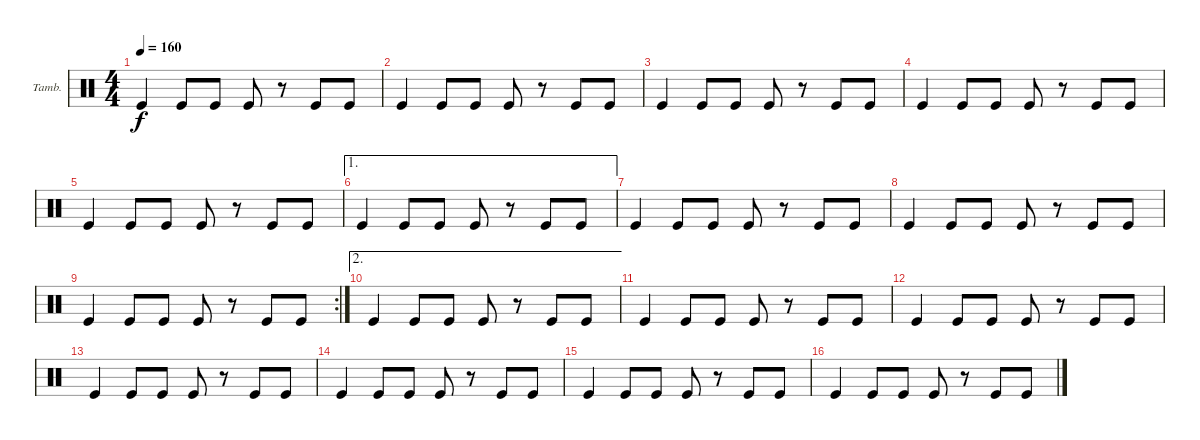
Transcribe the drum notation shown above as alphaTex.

\bracketExtendMode groupsimilarinstruments
\firstSystemTrackNameOrientation horizontal
\otherSystemsTrackNameOrientation horizontal
\track ("Tambourine" "Tamb.") {instrument percussion}
\staff {score}
\articulation defaults
\ts (4 4)
\tempo 160
\clef neutral
\ks c "Kick (hit)".4{dy f} "Kick (hit)".8 "Kick (hit)".8 "Kick (hit)".8
r.8 "Kick (hit)".8 "Kick (hit)".8 |
"Kick (hit)".4 "Kick (hit)".8 "Kick (hit)".8 "Kick (hit)".8 r.8 "Kick (hit)".8 "Kick (hit)".8 |
"Kick (hit)".4 "Kick (hit)".8 "Kick (hit)".8 "Kick (hit)".8 r.8 "Kick (hit)".8 "Kick (hit)".8 |
"Kick (hit)".4 "Kick (hit)".8 "Kick (hit)".8 "Kick (hit)".8 r.8 "Kick (hit)".8 "Kick (hit)".8 |
"Kick (hit)".4 "Kick (hit)".8 "Kick (hit)".8 "Kick (hit)".8 r.8 "Kick (hit)".8 "Kick (hit)".8 |
\ae 1 "Kick (hit)".4 "Kick (hit)".8 "Kick (hit)".8 "Kick (hit)".8
r.8 "Kick (hit)".8 "Kick (hit)".8 |
"Kick (hit)".4 "Kick (hit)".8 "Kick (hit)".8 "Kick (hit)".8 r.8 "Kick (hit)".8 "Kick (hit)".8 |
"Kick (hit)".4 "Kick (hit)".8 "Kick (hit)".8 "Kick (hit)".8 r.8 "Kick (hit)".8 "Kick (hit)".8 |
\rc 2 "Kick (hit)".4 "Kick (hit)".8 "Kick (hit)".8 "Kick (hit)".8
r.8 "Kick (hit)".8 "Kick (hit)".8 |
\ae 2 "Kick (hit)".4 "Kick (hit)".8 "Kick (hit)".8 "Kick (hit)".8
r.8 "Kick (hit)".8 "Kick (hit)".8 |
"Kick (hit)".4 "Kick (hit)".8 "Kick (hit)".8 "Kick (hit)".8 r.8 "Kick (hit)".8 "Kick (hit)".8 |
"Kick (hit)".4 "Kick (hit)".8 "Kick (hit)".8 "Kick (hit)".8 r.8 "Kick (hit)".8 "Kick (hit)".8 |
"Kick (hit)".4 "Kick (hit)".8 "Kick (hit)".8 "Kick (hit)".8 r.8 "Kick (hit)".8 "Kick (hit)".8 |
"Kick (hit)".4 "Kick (hit)".8 "Kick (hit)".8 "Kick (hit)".8 r.8 "Kick (hit)".8 "Kick (hit)".8 |
"Kick (hit)".4 "Kick (hit)".8 "Kick (hit)".8 "Kick (hit)".8 r.8 "Kick (hit)".8 "Kick (hit)".8 |
"Kick (hit)".4 "Kick (hit)".8 "Kick (hit)".8 "Kick (hit)".8 r.8 "Kick (hit)".8 "Kick (hit)".8
